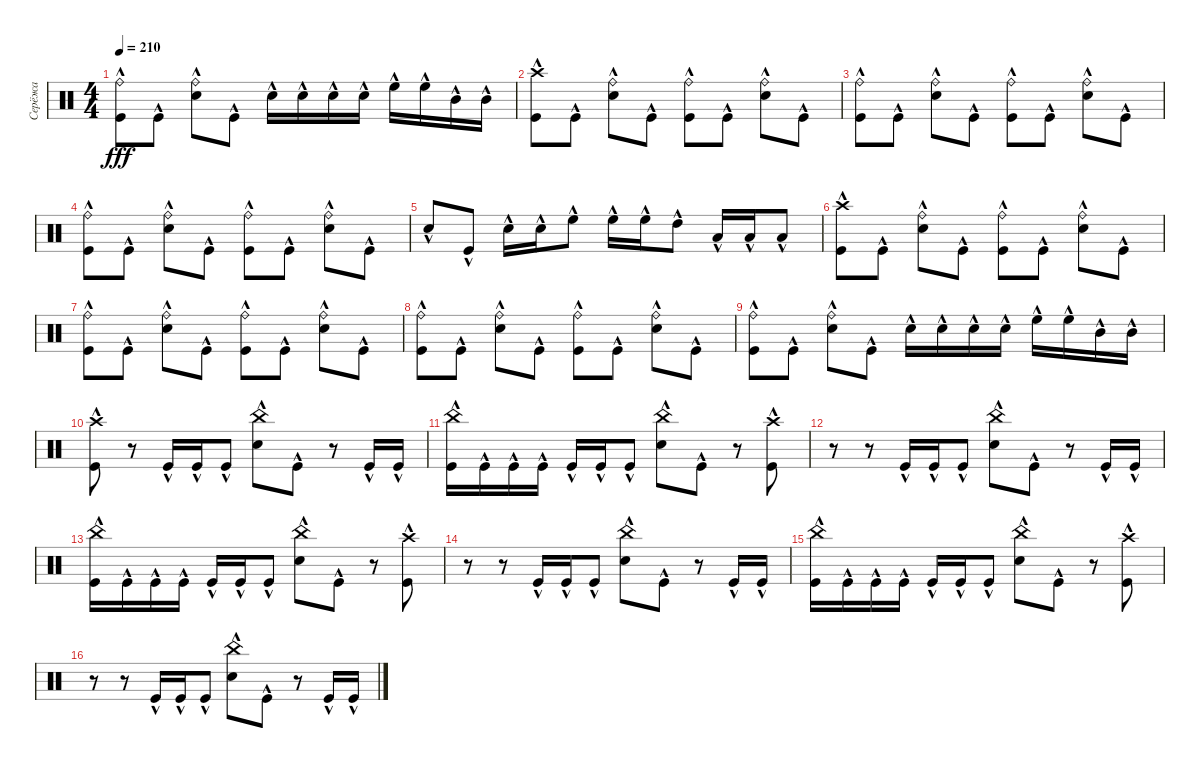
\track ("Серёжа" "Серёжа") {instrument percussion}
\staff {score}
\articulation defaults
\ts (4 4)
\tempo 210
\clef neutral
\ks c
("Ride (bell)" "Kick (hit)"{hac}).8{dy fff} "Kick (hit)"{hac}.8 ("Ride (bell)" "Snare (hit) 2"{hac}).8 "Kick (hit)"{hac}.8 "Snare (hit) 2"{hac}.16 "Snare (hit) 2"{hac}.16 "Snare (hit) 2"{hac}.16 "Snare (hit) 2"{hac}.16 "High Floor Tom (hit)"{hac}.16 "High Floor Tom (hit)"{hac}.16 "Mid Tom (hit)"{hac}.16 "Mid Tom (hit)"{hac}.16 |
("Crash high (hit)"{hac} "Kick (hit)"{hac}).8 "Kick (hit)"{hac}.8 ("Ride (bell)" "Snare (hit) 2"{hac}).8 "Kick (hit)"{hac}.8 ("Ride (bell)" "Kick (hit)"{hac}).8 "Kick (hit)"{hac}.8 ("Ride (bell)" "Snare (hit) 2"{hac}).8 "Kick (hit)"{hac}.8 |
("Ride (bell)" "Kick (hit)"{hac}).8 "Kick (hit)"{hac}.8 ("Ride (bell)" "Snare (hit) 2"{hac}).8 "Kick (hit)"{hac}.8 ("Ride (bell)" "Kick (hit)"{hac}).8 "Kick (hit)"{hac}.8 ("Ride (bell)" "Snare (hit) 2"{hac}).8 "Kick (hit)"{hac}.8 |
("Ride (bell)" "Kick (hit)"{hac}).8 "Kick (hit)"{hac}.8 ("Ride (bell)" "Snare (hit) 2"{hac}).8 "Kick (hit)"{hac}.8 ("Ride (bell)" "Kick (hit)"{hac}).8 "Kick (hit)"{hac}.8 ("Ride (bell)" "Snare (hit) 2"{hac}).8 "Kick (hit)"{hac}.8 |
"Snare (hit) 2"{hac}.8 "Kick (hit)"{hac}.8 "Snare (hit) 2"{hac}.16 "Snare (hit) 2"{hac}.16 "High Floor Tom (hit)"{hac}.8 "High Floor Tom (hit)"{hac}.16 "High Floor Tom (hit)"{hac}.16 "High Tom (hit)"{hac}.8 "Low Tom (hit)"{hac}.16 "Low Tom (hit)"{hac}.16 "Low Floor Tom (hit)"{hac}.8 |
("Crash high (hit)"{hac} "Kick (hit)"{hac}).8 "Kick (hit)"{hac}.8 ("Ride (bell)" "Snare (hit) 2"{hac}).8 "Kick (hit)"{hac}.8 ("Ride (bell)" "Kick (hit)"{hac}).8 "Kick (hit)"{hac}.8 ("Ride (bell)" "Snare (hit) 2"{hac}).8 "Kick (hit)"{hac}.8 |
("Ride (bell)" "Kick (hit)"{hac}).8 "Kick (hit)"{hac}.8 ("Ride (bell)" "Snare (hit) 2"{hac}).8 "Kick (hit)"{hac}.8 ("Ride (bell)" "Kick (hit)"{hac}).8 "Kick (hit)"{hac}.8 ("Ride (bell)" "Snare (hit) 2"{hac}).8 "Kick (hit)"{hac}.8 |
("Ride (bell)" "Kick (hit)"{hac}).8 "Kick (hit)"{hac}.8 ("Ride (bell)" "Snare (hit) 2"{hac}).8 "Kick (hit)"{hac}.8 ("Ride (bell)" "Kick (hit)"{hac}).8 "Kick (hit)"{hac}.8 ("Ride (bell)" "Snare (hit) 2"{hac}).8 "Kick (hit)"{hac}.8 |
("Ride (bell)" "Kick (hit)"{hac}).8 "Kick (hit)"{hac}.8 ("Ride (bell)" "Snare (hit) 2"{hac}).8 "Kick (hit)"{hac}.8 "Snare (hit) 2"{hac}.16 "Snare (hit) 2"{hac}.16 "Snare (hit) 2"{hac}.16 "Snare (hit) 2"{hac}.16 "High Floor Tom (hit)"{hac}.16 "High Floor Tom (hit)"{hac}.16 "Mid Tom (hit)"{hac}.16 "Mid Tom (hit)"{hac}.16 |
("Crash high (hit)"{hac} "Kick (hit)"{hac}).8 r.8 "Kick (hit)"{hac}.16 "Kick (hit)"{hac}.16 "Kick (hit)"{hac}.8 ("China (hit)" "Snare (hit) 2"{hac}).8 "Kick (hit)"{hac}.8 r.8 "Kick (hit)"{hac}.16 "Kick (hit)"{hac}.16 |
("China (hit)" "Kick (hit)"{hac}).16 "Kick (hit)"{hac}.16 "Kick (hit)"{hac}.16 "Kick (hit)"{hac}.16 "Kick (hit)"{hac}.16 "Kick (hit)"{hac}.16 "Kick (hit)"{hac}.8 ("China (hit)" "Snare (hit) 2"{hac}).8 "Kick (hit)"{hac}.8 r.8 ("Crash high (hit)"{hac} "Kick (hit)"{hac}).8 |
r.8 r.8 "Kick (hit)"{hac}.16 "Kick (hit)"{hac}.16 "Kick (hit)"{hac}.8 ("China (hit)" "Snare (hit) 2"{hac}).8 "Kick (hit)"{hac}.8 r.8 "Kick (hit)"{hac}.16 "Kick (hit)"{hac}.16 |
("China (hit)" "Kick (hit)"{hac}).16 "Kick (hit)"{hac}.16 "Kick (hit)"{hac}.16 "Kick (hit)"{hac}.16 "Kick (hit)"{hac}.16 "Kick (hit)"{hac}.16 "Kick (hit)"{hac}.8 ("China (hit)" "Snare (hit) 2"{hac}).8 "Kick (hit)"{hac}.8 r.8 ("Crash high (hit)"{hac} "Kick (hit)"{hac}).8 |
r.8 r.8 "Kick (hit)"{hac}.16 "Kick (hit)"{hac}.16 "Kick (hit)"{hac}.8 ("China (hit)" "Snare (hit) 2"{hac}).8 "Kick (hit)"{hac}.8 r.8 "Kick (hit)"{hac}.16 "Kick (hit)"{hac}.16 |
("China (hit)" "Kick (hit)"{hac}).16 "Kick (hit)"{hac}.16 "Kick (hit)"{hac}.16 "Kick (hit)"{hac}.16 "Kick (hit)"{hac}.16 "Kick (hit)"{hac}.16 "Kick (hit)"{hac}.8 ("China (hit)" "Snare (hit) 2"{hac}).8 "Kick (hit)"{hac}.8 r.8 ("Crash high (hit)"{hac} "Kick (hit)"{hac}).8 |
r.8 r.8 "Kick (hit)"{hac}.16 "Kick (hit)"{hac}.16 "Kick (hit)"{hac}.8 ("China (hit)" "Snare (hit) 2"{hac}).8 "Kick (hit)"{hac}.8 r.8 "Kick (hit)"{hac}.16 "Kick (hit)"{hac}.16
